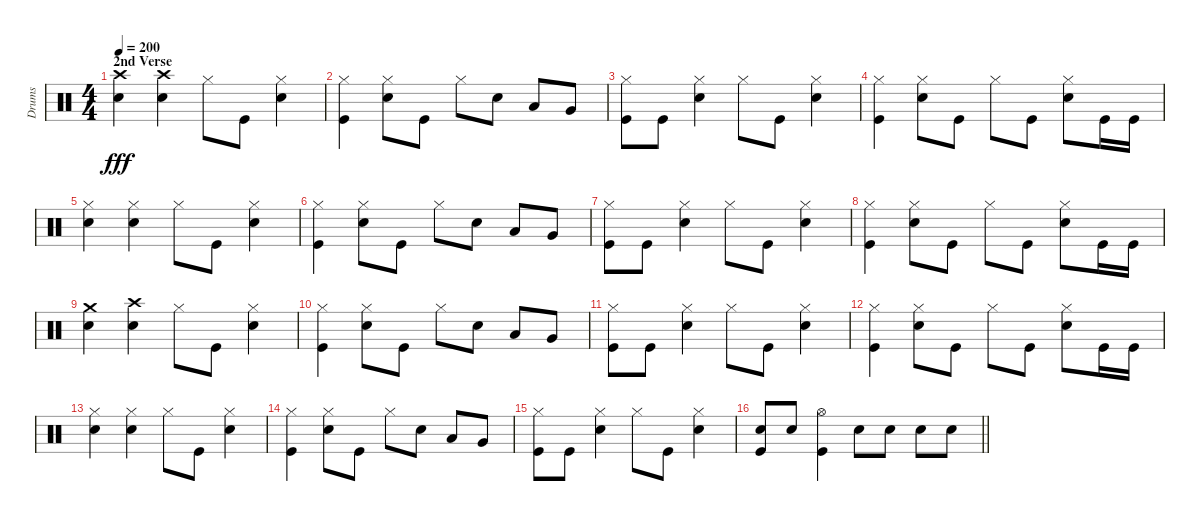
\track ("Drums" "Drums") {instrument percussion}
\staff {score}
\articulation defaults
\ts (4 4)
\section ("" "2nd Verse")
\tempo 200
\clef neutral
\ks c
("Crash high (hit)" "Snare (hit) 2").4{dy fff} ("Crash high (hit)" "Snare (hit) 2").4 "Hi-Hat (closed)".8 "Kick (hit)".8 ("Hi-Hat (closed)" "Snare (hit) 2").4 |
("Hi-Hat (closed)" "Kick (hit)").4 ("Hi-Hat (closed)" "Snare (hit) 2").8 "Kick (hit)".8 "Hi-Hat (closed)".8 "Snare (hit) 2".8 "Low Tom (hit)".8 "Very Low Tom (hit)".8 |
("Hi-Hat (closed)" "Kick (hit)").8 "Kick (hit)".8 ("Hi-Hat (closed)" "Snare (hit) 2").4 "Hi-Hat (closed)".8 "Kick (hit)".8 ("Hi-Hat (closed)" "Snare (hit) 2").4 |
("Hi-Hat (closed)" "Kick (hit)").4 ("Hi-Hat (closed)" "Snare (hit) 2").8 "Kick (hit)".8 "Hi-Hat (closed)".8 "Kick (hit)".8 ("Hi-Hat (closed)" "Snare (hit) 2").8 "Kick (hit)".16 "Kick (hit)".16 |
("Hi-Hat (closed)" "Snare (hit) 2").4 ("Hi-Hat (closed)" "Snare (hit) 2").4 "Hi-Hat (closed)".8 "Kick (hit)".8 ("Hi-Hat (closed)" "Snare (hit) 2").4 |
("Hi-Hat (closed)" "Kick (hit)").4 ("Hi-Hat (closed)" "Snare (hit) 2").8 "Kick (hit)".8 "Hi-Hat (closed)".8 "Snare (hit) 2".8 "Low Tom (hit)".8 "Very Low Tom (hit)".8 |
("Hi-Hat (closed)" "Kick (hit)").8 "Kick (hit)".8 ("Hi-Hat (closed)" "Snare (hit) 2").4 "Hi-Hat (closed)".8 "Kick (hit)".8 ("Hi-Hat (closed)" "Snare (hit) 2").4 |
("Hi-Hat (closed)" "Kick (hit)").4 ("Hi-Hat (closed)" "Snare (hit) 2").8 "Kick (hit)".8 "Hi-Hat (closed)".8 "Kick (hit)".8 ("Hi-Hat (closed)" "Snare (hit) 2").8 "Kick (hit)".16 "Kick (hit)".16 |
("Crash medium (hit)" "Snare (hit) 2").4 ("Crash high (hit)" "Snare (hit) 2").4 "Hi-Hat (closed)".8 "Kick (hit)".8 ("Hi-Hat (closed)" "Snare (hit) 2").4 |
("Hi-Hat (closed)" "Kick (hit)").4 ("Hi-Hat (closed)" "Snare (hit) 2").8 "Kick (hit)".8 "Hi-Hat (closed)".8 "Snare (hit) 2".8 "Low Tom (hit)".8 "Very Low Tom (hit)".8 |
("Hi-Hat (closed)" "Kick (hit)").8 "Kick (hit)".8 ("Hi-Hat (closed)" "Snare (hit) 2").4 "Hi-Hat (closed)".8 "Kick (hit)".8 ("Hi-Hat (closed)" "Snare (hit) 2").4 |
("Hi-Hat (closed)" "Kick (hit)").4 ("Hi-Hat (closed)" "Snare (hit) 2").8 "Kick (hit)".8 "Hi-Hat (closed)".8 "Kick (hit)".8 ("Hi-Hat (closed)" "Snare (hit) 2").8 "Kick (hit)".16 "Kick (hit)".16 |
("Hi-Hat (closed)" "Snare (hit) 2").4 ("Hi-Hat (closed)" "Snare (hit) 2").4 "Hi-Hat (closed)".8 "Kick (hit)".8 ("Hi-Hat (closed)" "Snare (hit) 2").4 |
("Hi-Hat (closed)" "Kick (hit)").4 ("Hi-Hat (closed)" "Snare (hit) 2").8 "Kick (hit)".8 "Hi-Hat (closed)".8 "Snare (hit) 2".8 "Low Tom (hit)".8 "Very Low Tom (hit)".8 |
("Hi-Hat (closed)" "Kick (hit)").8 "Kick (hit)".8 ("Hi-Hat (closed)" "Snare (hit) 2").4 "Hi-Hat (closed)".8 "Kick (hit)".8 ("Hi-Hat (closed)" "Snare (hit) 2").4 |
\barLineRight lightlight
("Snare (hit) 2" "Kick (hit)").8 "Snare (hit) 2".8 ("Hi-Hat (open)" "Kick (hit)").4 "Snare (hit) 2".8 "Snare (hit) 2".8 "Snare (hit) 2".8 "Snare (hit) 2".8
